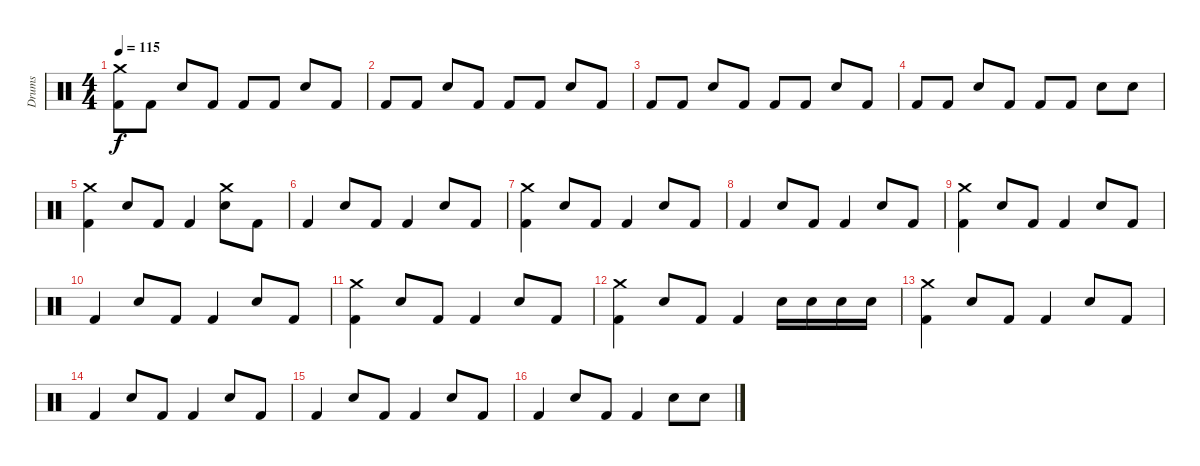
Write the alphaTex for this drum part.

\track ("Drums" "Drums") {instrument percussion}
\staff {score}
\articulation defaults
\ts (4 4)
\tempo 115
\clef neutral
\ks c
("Crash medium (hit)" "Kick (hit) 2").8{dy f} "Kick (hit) 2".8 "Snare (hit) 2".8 "Kick (hit) 2".8 "Kick (hit) 2".8 "Kick (hit) 2".8 "Snare (hit) 2".8 "Kick (hit) 2".8 |
"Kick (hit) 2".8 "Kick (hit) 2".8 "Snare (hit) 2".8 "Kick (hit) 2".8 "Kick (hit) 2".8 "Kick (hit) 2".8 "Snare (hit) 2".8 "Kick (hit) 2".8 |
"Kick (hit) 2".8 "Kick (hit) 2".8 "Snare (hit) 2".8 "Kick (hit) 2".8 "Kick (hit) 2".8 "Kick (hit) 2".8 "Snare (hit) 2".8 "Kick (hit) 2".8 |
"Kick (hit) 2".8 "Kick (hit) 2".8 "Snare (hit) 2".8 "Kick (hit) 2".8 "Kick (hit) 2".8 "Kick (hit) 2".8 "Snare (hit) 2".8 "Snare (hit) 2".8 |
("Crash medium (hit)" "Kick (hit) 2").4 "Snare (hit) 2".8 "Kick (hit) 2".8 "Kick (hit) 2".4 ("Crash medium (hit)" "Snare (hit) 2").8 "Kick (hit) 2".8 |
"Kick (hit) 2".4 "Snare (hit) 2".8 "Kick (hit) 2".8 "Kick (hit) 2".4 "Snare (hit) 2".8 "Kick (hit) 2".8 |
("Crash medium (hit)" "Kick (hit) 2").4 "Snare (hit) 2".8 "Kick (hit) 2".8 "Kick (hit) 2".4 "Snare (hit) 2".8 "Kick (hit) 2".8 |
"Kick (hit) 2".4 "Snare (hit) 2".8 "Kick (hit) 2".8 "Kick (hit) 2".4 "Snare (hit) 2".8 "Kick (hit) 2".8 |
("Crash medium (hit)" "Kick (hit) 2").4 "Snare (hit) 2".8 "Kick (hit) 2".8 "Kick (hit) 2".4 "Snare (hit) 2".8 "Kick (hit) 2".8 |
"Kick (hit) 2".4 "Snare (hit) 2".8 "Kick (hit) 2".8 "Kick (hit) 2".4 "Snare (hit) 2".8 "Kick (hit) 2".8 |
("Crash medium (hit)" "Kick (hit) 2").4 "Snare (hit) 2".8 "Kick (hit) 2".8 "Kick (hit) 2".4 "Snare (hit) 2".8 "Kick (hit) 2".8 |
("Crash medium (hit)" "Kick (hit) 2").4 "Snare (hit) 2".8 "Kick (hit) 2".8 "Kick (hit) 2".4 "Snare (hit) 2".16 "Snare (hit) 2".16 "Snare (hit) 2".16 "Snare (hit) 2".16 |
("Kick (hit) 2" "Crash medium (hit)").4 "Snare (hit) 2".8 "Kick (hit) 2".8 "Kick (hit) 2".4 "Snare (hit) 2".8 "Kick (hit) 2".8 |
"Kick (hit) 2".4 "Snare (hit) 2".8 "Kick (hit) 2".8 "Kick (hit) 2".4 "Snare (hit) 2".8 "Kick (hit) 2".8 |
"Kick (hit) 2".4 "Snare (hit) 2".8 "Kick (hit) 2".8 "Kick (hit) 2".4 "Snare (hit) 2".8 "Kick (hit) 2".8 |
"Kick (hit) 2".4 "Snare (hit) 2".8 "Kick (hit) 2".8 "Kick (hit) 2".4 "Snare (hit) 2".8 "Snare (hit) 2".8
